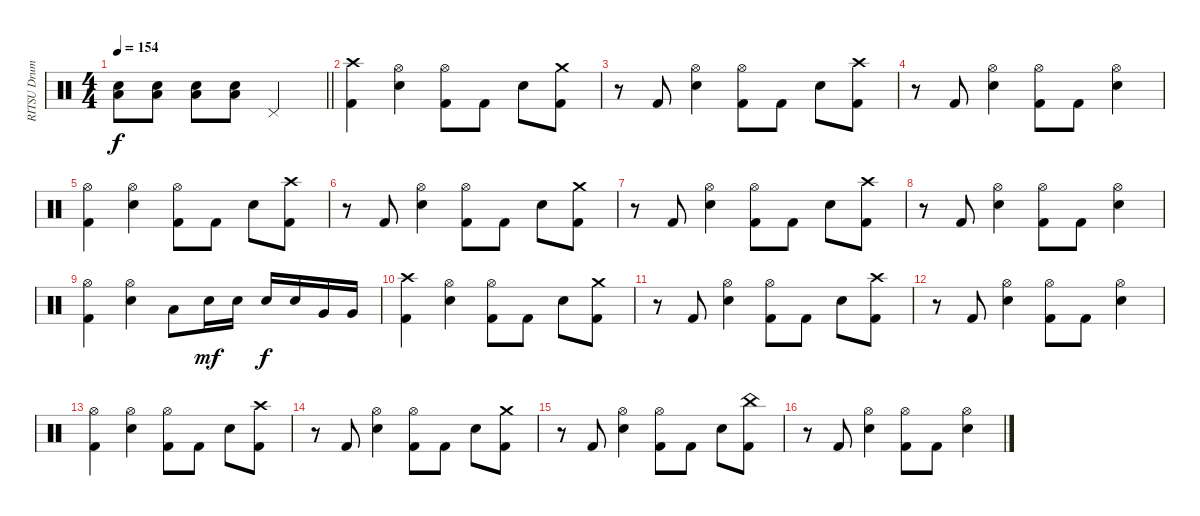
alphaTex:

\track ("RITSU Drums" "RITSU Drum") {instrument percussion}
\staff {score}
\articulation defaults
\ts (4 4)
\tempo 154
\clef neutral
\barLineRight lightlight
\ks c
("Electric Snare (hit)" "Low Floor Tom (hit)").8{dy f} ("Electric Snare (hit)" "Low Floor Tom (hit)").8 ("Electric Snare (hit)" "Low Floor Tom (hit)").8 ("Electric Snare (hit)" "Low Floor Tom (hit)").8 "Pedal Hi-Hat (hit)".2 |
("Crash high (hit)" "Kick (hit) 2").4 ("Hi-Hat (open)" "Electric Snare (hit)").4 ("Hi-Hat (open)" "Kick (hit) 2").8 "Kick (hit) 2".8 "Electric Snare (hit)".8 ("Crash medium (hit)" "Kick (hit) 2").8 |
r.8 "Kick (hit) 2".8 ("Hi-Hat (open)" "Electric Snare (hit)").4 ("Hi-Hat (open)" "Kick (hit) 2").8 "Kick (hit) 2".8 "Electric Snare (hit)".8 ("Crash high (hit)" "Kick (hit) 2").8 |
r.8 "Kick (hit) 2".8 ("Hi-Hat (open)" "Electric Snare (hit)").4 ("Hi-Hat (open)" "Kick (hit) 2").8 "Kick (hit) 2".8 ("Hi-Hat (open)" "Electric Snare (hit)").4 |
("Hi-Hat (open)" "Kick (hit) 2").4 ("Hi-Hat (open)" "Electric Snare (hit)").4 ("Hi-Hat (open)" "Kick (hit) 2").8 "Kick (hit) 2".8 "Electric Snare (hit)".8 ("Crash high (hit)" "Kick (hit) 2").8 |
r.8 "Kick (hit) 2".8 ("Hi-Hat (open)" "Electric Snare (hit)").4 ("Hi-Hat (open)" "Kick (hit) 2").8 "Kick (hit) 2".8 "Electric Snare (hit)".8 ("Crash medium (hit)" "Kick (hit) 2").8 |
r.8 "Kick (hit) 2".8 ("Hi-Hat (open)" "Electric Snare (hit)").4 ("Hi-Hat (open)" "Kick (hit) 2").8 "Kick (hit) 2".8 "Electric Snare (hit)".8 ("Crash high (hit)" "Kick (hit) 2").8 |
r.8 "Kick (hit) 2".8 ("Hi-Hat (open)" "Electric Snare (hit)").4 ("Hi-Hat (open)" "Kick (hit) 2").8 "Kick (hit) 2".8 ("Hi-Hat (open)" "Electric Snare (hit)").4 |
("Hi-Hat (open)" "Kick (hit) 2").4 ("Hi-Hat (open)" "Electric Snare (hit)").4 "Low Tom (hit)".8 "Electric Snare (hit)".16{dy mf} "Electric Snare (hit)".16 "Electric Snare (hit)".16{dy f} "Electric Snare (hit)".16 "Very Low Tom (hit)".16 "Very Low Tom (hit)".16 |
("Crash high (hit)" "Kick (hit) 2").4 ("Hi-Hat (open)" "Electric Snare (hit)").4 ("Hi-Hat (open)" "Kick (hit) 2").8 "Kick (hit) 2".8 "Electric Snare (hit)".8 ("Crash medium (hit)" "Kick (hit) 2").8 |
r.8 "Kick (hit) 2".8 ("Hi-Hat (open)" "Electric Snare (hit)").4 ("Hi-Hat (open)" "Kick (hit) 2").8 "Kick (hit) 2".8 "Electric Snare (hit)".8 ("Crash high (hit)" "Kick (hit) 2").8 |
r.8 "Kick (hit) 2".8 ("Hi-Hat (open)" "Electric Snare (hit)").4 ("Hi-Hat (open)" "Kick (hit) 2").8 "Kick (hit) 2".8 ("Hi-Hat (open)" "Electric Snare (hit)").4 |
("Hi-Hat (open)" "Kick (hit) 2").4 ("Hi-Hat (open)" "Electric Snare (hit)").4 ("Hi-Hat (open)" "Kick (hit) 2").8 "Kick (hit) 2".8 "Electric Snare (hit)".8 ("Crash high (hit)" "Kick (hit) 2").8 |
r.8 "Kick (hit) 2".8 ("Hi-Hat (open)" "Electric Snare (hit)").4 ("Hi-Hat (open)" "Kick (hit) 2").8 "Kick (hit) 2".8 "Electric Snare (hit)".8 ("Crash medium (hit)" "Kick (hit) 2").8 |
r.8 "Kick (hit) 2".8 ("Hi-Hat (open)" "Electric Snare (hit)").4 ("Hi-Hat (open)" "Kick (hit) 2").8 "Kick (hit) 2".8 "Electric Snare (hit)".8 ("China (hit)" "Kick (hit) 2").8 |
r.8 "Kick (hit) 2".8 ("Hi-Hat (open)" "Electric Snare (hit)").4 ("Hi-Hat (open)" "Kick (hit) 2").8 "Kick (hit) 2".8 ("Hi-Hat (open)" "Electric Snare (hit)").4
